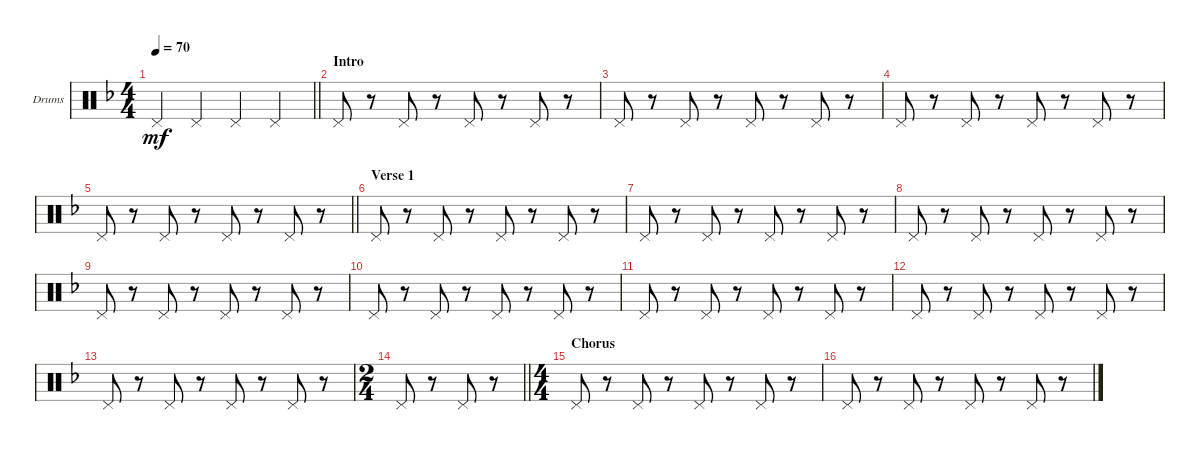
\bracketExtendMode groupsimilarinstruments
\firstSystemTrackNameOrientation horizontal
\otherSystemsTrackNameOrientation horizontal
\track ("Барабаны" "Drums") {instrument percussion}
\staff {score}
\articulation defaults
\ts (4 4)
\beaming (8 2 2 2 2)
\tempo 70
\clef neutral
\barLineRight lightlight
\ks dminor "Pedal Hi-Hat (hit)".4{dy mf} "Pedal Hi-Hat (hit)".4 "Pedal Hi-Hat (hit)".4 "Pedal Hi-Hat (hit)".4
|
\section ("" "Intro")
"Pedal Hi-Hat (hit)".8 r.8 "Pedal Hi-Hat (hit)".8 r.8 "Pedal Hi-Hat (hit)".8 r.8 "Pedal Hi-Hat (hit)".8 r.8 |
"Pedal Hi-Hat (hit)".8 r.8 "Pedal Hi-Hat (hit)".8 r.8 "Pedal Hi-Hat (hit)".8 r.8 "Pedal Hi-Hat (hit)".8 r.8 |
"Pedal Hi-Hat (hit)".8 r.8 "Pedal Hi-Hat (hit)".8 r.8 "Pedal Hi-Hat (hit)".8 r.8 "Pedal Hi-Hat (hit)".8 r.8 |
\barLineRight lightlight "Pedal Hi-Hat (hit)".8
r.8 "Pedal Hi-Hat (hit)".8 r.8 "Pedal Hi-Hat (hit)".8 r.8 "Pedal Hi-Hat (hit)".8 r.8 |
\section ("" "Verse 1")
"Pedal Hi-Hat (hit)".8 r.8 "Pedal Hi-Hat (hit)".8 r.8 "Pedal Hi-Hat (hit)".8 r.8 "Pedal Hi-Hat (hit)".8 r.8 |
"Pedal Hi-Hat (hit)".8 r.8 "Pedal Hi-Hat (hit)".8 r.8 "Pedal Hi-Hat (hit)".8 r.8 "Pedal Hi-Hat (hit)".8 r.8 |
"Pedal Hi-Hat (hit)".8 r.8 "Pedal Hi-Hat (hit)".8 r.8 "Pedal Hi-Hat (hit)".8 r.8 "Pedal Hi-Hat (hit)".8 r.8 |
"Pedal Hi-Hat (hit)".8 r.8 "Pedal Hi-Hat (hit)".8 r.8 "Pedal Hi-Hat (hit)".8 r.8 "Pedal Hi-Hat (hit)".8 r.8 |
"Pedal Hi-Hat (hit)".8 r.8 "Pedal Hi-Hat (hit)".8 r.8 "Pedal Hi-Hat (hit)".8 r.8 "Pedal Hi-Hat (hit)".8 r.8 |
"Pedal Hi-Hat (hit)".8 r.8 "Pedal Hi-Hat (hit)".8 r.8 "Pedal Hi-Hat (hit)".8 r.8 "Pedal Hi-Hat (hit)".8 r.8 |
"Pedal Hi-Hat (hit)".8 r.8 "Pedal Hi-Hat (hit)".8 r.8 "Pedal Hi-Hat (hit)".8 r.8 "Pedal Hi-Hat (hit)".8 r.8 |
"Pedal Hi-Hat (hit)".8 r.8 "Pedal Hi-Hat (hit)".8 r.8 "Pedal Hi-Hat (hit)".8 r.8 "Pedal Hi-Hat (hit)".8 r.8 |
\ts (2 4)
\beaming (8 2 2)
\barLineRight lightlight "Pedal Hi-Hat (hit)".8
r.8 "Pedal Hi-Hat (hit)".8 r.8 |
\ts (4 4)
\beaming (8 2 2 2 2)
\section ("" "Chorus")
"Pedal Hi-Hat (hit)".8 r.8 "Pedal Hi-Hat (hit)".8 r.8 "Pedal Hi-Hat (hit)".8 r.8 "Pedal Hi-Hat (hit)".8 r.8 |
"Pedal Hi-Hat (hit)".8 r.8 "Pedal Hi-Hat (hit)".8 r.8 "Pedal Hi-Hat (hit)".8 r.8 "Pedal Hi-Hat (hit)".8 r.8
